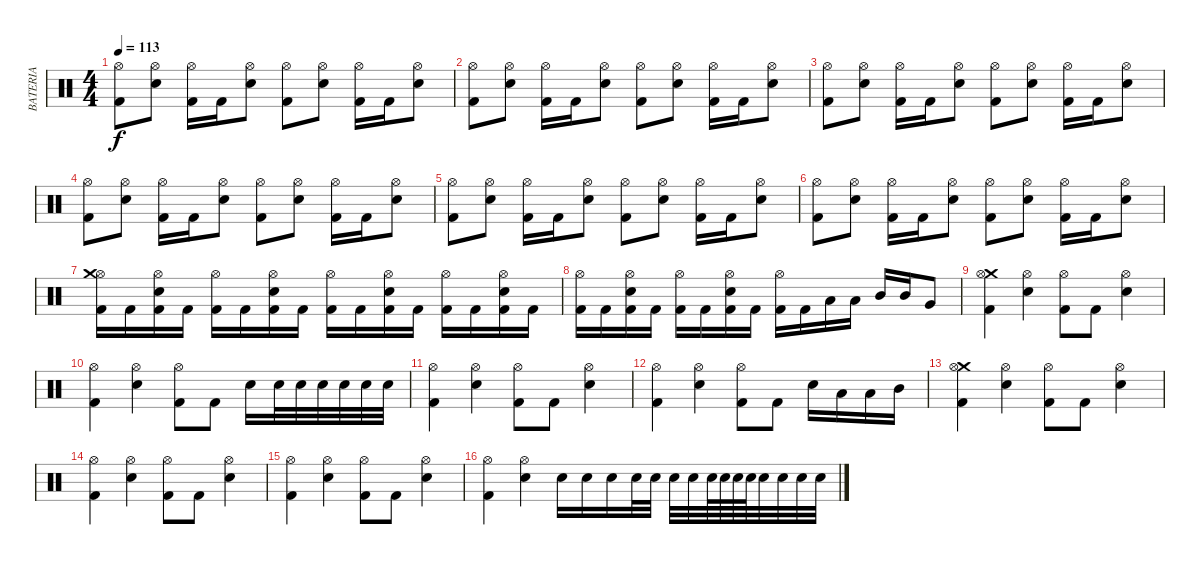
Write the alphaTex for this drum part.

\track ("BATERIA" "BATERIA") {instrument percussion}
\staff {score}
\articulation defaults
\ts (4 4)
\tempo 113
\clef neutral
\ks c
("Hi-Hat (open)" "Kick (hit) 2").8{dy f} ("Hi-Hat (open)" "Electric Snare (hit)").8 ("Hi-Hat (open)" "Kick (hit) 2").16 "Kick (hit) 2".16 ("Hi-Hat (open)" "Electric Snare (hit)").8 ("Hi-Hat (open)" "Kick (hit) 2").8 ("Hi-Hat (open)" "Electric Snare (hit)").8 ("Hi-Hat (open)" "Kick (hit) 2").16 "Kick (hit) 2".16 ("Hi-Hat (open)" "Electric Snare (hit)").8 |
("Hi-Hat (open)" "Kick (hit) 2").8 ("Hi-Hat (open)" "Electric Snare (hit)").8 ("Hi-Hat (open)" "Kick (hit) 2").16 "Kick (hit) 2".16 ("Hi-Hat (open)" "Electric Snare (hit)").8 ("Hi-Hat (open)" "Kick (hit) 2").8 ("Hi-Hat (open)" "Electric Snare (hit)").8 ("Hi-Hat (open)" "Kick (hit) 2").16 "Kick (hit) 2".16 ("Hi-Hat (open)" "Electric Snare (hit)").8 |
("Hi-Hat (open)" "Kick (hit) 2").8 ("Hi-Hat (open)" "Electric Snare (hit)").8 ("Hi-Hat (open)" "Kick (hit) 2").16 "Kick (hit) 2".16 ("Hi-Hat (open)" "Electric Snare (hit)").8 ("Hi-Hat (open)" "Kick (hit) 2").8 ("Hi-Hat (open)" "Electric Snare (hit)").8 ("Hi-Hat (open)" "Kick (hit) 2").16 "Kick (hit) 2".16 ("Hi-Hat (open)" "Electric Snare (hit)").8 |
("Hi-Hat (open)" "Kick (hit) 2").8 ("Hi-Hat (open)" "Electric Snare (hit)").8 ("Hi-Hat (open)" "Kick (hit) 2").16 "Kick (hit) 2".16 ("Hi-Hat (open)" "Electric Snare (hit)").8 ("Hi-Hat (open)" "Kick (hit) 2").8 ("Hi-Hat (open)" "Electric Snare (hit)").8 ("Hi-Hat (open)" "Kick (hit) 2").16 "Kick (hit) 2".16 ("Hi-Hat (open)" "Electric Snare (hit)").8 |
("Hi-Hat (open)" "Kick (hit) 2").8 ("Hi-Hat (open)" "Electric Snare (hit)").8 ("Hi-Hat (open)" "Kick (hit) 2").16 "Kick (hit) 2".16 ("Hi-Hat (open)" "Electric Snare (hit)").8 ("Hi-Hat (open)" "Kick (hit) 2").8 ("Hi-Hat (open)" "Electric Snare (hit)").8 ("Hi-Hat (open)" "Kick (hit) 2").16 "Kick (hit) 2".16 ("Hi-Hat (open)" "Electric Snare (hit)").8 |
("Hi-Hat (open)" "Kick (hit) 2").8 ("Hi-Hat (open)" "Electric Snare (hit)").8 ("Hi-Hat (open)" "Kick (hit) 2").16 "Kick (hit) 2".16 ("Hi-Hat (open)" "Electric Snare (hit)").8 ("Hi-Hat (open)" "Kick (hit) 2").8 ("Hi-Hat (open)" "Electric Snare (hit)").8 ("Hi-Hat (open)" "Kick (hit) 2").16 "Kick (hit) 2".16 ("Hi-Hat (open)" "Electric Snare (hit)").8 |
("Hi-Hat (open)" "Kick (hit) 2" "Crash medium (hit)").16 "Kick (hit) 2".16 ("Hi-Hat (open)" "Electric Snare (hit)" "Kick (hit) 2").16 "Kick (hit) 2".16 ("Hi-Hat (open)" "Kick (hit) 2").16 "Kick (hit) 2".16 ("Hi-Hat (open)" "Electric Snare (hit)" "Kick (hit) 2").16 "Kick (hit) 2".16 ("Hi-Hat (open)" "Kick (hit) 2").16 "Kick (hit) 2".16 ("Hi-Hat (open)" "Electric Snare (hit)" "Kick (hit) 2").16 "Kick (hit) 2".16 ("Hi-Hat (open)" "Kick (hit) 2").16 "Kick (hit) 2".16 ("Hi-Hat (open)" "Electric Snare (hit)" "Kick (hit) 2").16 "Kick (hit) 2".16 |
("Hi-Hat (open)" "Kick (hit) 2").16 "Kick (hit) 2".16 ("Hi-Hat (open)" "Electric Snare (hit)" "Kick (hit) 2").16 "Kick (hit) 2".16 ("Hi-Hat (open)" "Kick (hit) 2").16 "Kick (hit) 2".16 ("Hi-Hat (open)" "Electric Snare (hit)" "Kick (hit) 2").16 "Kick (hit) 2".16 ("Hi-Hat (open)" "Kick (hit) 2").16 "Kick (hit) 2".16 "Low Tom (hit)".16 "Low Tom (hit)".16 "Mid Tom (hit)".16 "Mid Tom (hit)".16 "Very Low Tom (hit)".8 |
("Crash medium (hit)" "Hi-Hat (open)" "Kick (hit) 2").4 ("Hi-Hat (open)" "Electric Snare (hit)").4 ("Hi-Hat (open)" "Kick (hit) 2").8 "Kick (hit) 2".8 ("Hi-Hat (open)" "Electric Snare (hit)").4 |
("Hi-Hat (open)" "Kick (hit) 2").4 ("Hi-Hat (open)" "Electric Snare (hit)").4 ("Hi-Hat (open)" "Kick (hit) 2").8 "Kick (hit) 2".8 "Electric Snare (hit)".16 "Electric Snare (hit)".32 "Electric Snare (hit)".32 "Electric Snare (hit)".32 "Electric Snare (hit)".32 "Electric Snare (hit)".32 "Electric Snare (hit)".32 |
("Hi-Hat (open)" "Kick (hit) 2").4 ("Hi-Hat (open)" "Electric Snare (hit)").4 ("Hi-Hat (open)" "Kick (hit) 2").8 "Kick (hit) 2".8 ("Hi-Hat (open)" "Electric Snare (hit)").4 |
("Hi-Hat (open)" "Kick (hit) 2").4 ("Hi-Hat (open)" "Electric Snare (hit)").4 ("Hi-Hat (open)" "Kick (hit) 2").8 "Kick (hit) 2".8 "Electric Snare (hit)".16 "Low Tom (hit)".16 "Low Tom (hit)".16 "Mid Tom (hit)".16 |
("Crash medium (hit)" "Hi-Hat (open)" "Kick (hit) 2").4 ("Hi-Hat (open)" "Electric Snare (hit)").4 ("Hi-Hat (open)" "Kick (hit) 2").8 "Kick (hit) 2".8 ("Hi-Hat (open)" "Electric Snare (hit)").4 |
("Hi-Hat (open)" "Kick (hit) 2").4 ("Hi-Hat (open)" "Electric Snare (hit)").4 ("Hi-Hat (open)" "Kick (hit) 2").8 "Kick (hit) 2".8 ("Hi-Hat (open)" "Electric Snare (hit)").4 |
("Hi-Hat (open)" "Kick (hit) 2").4 ("Hi-Hat (open)" "Electric Snare (hit)").4 ("Hi-Hat (open)" "Kick (hit) 2").8 "Kick (hit) 2".8 ("Hi-Hat (open)" "Electric Snare (hit)").4 |
("Hi-Hat (open)" "Kick (hit) 2").4 ("Hi-Hat (open)" "Electric Snare (hit)").4 "Electric Snare (hit)".16 "Electric Snare (hit)".16 "Electric Snare (hit)".16 "Electric Snare (hit)".32 "Electric Snare (hit)".32 "Electric Snare (hit)".32 "Electric Snare (hit)".32 "Electric Snare (hit)".64 "Electric Snare (hit)".64 "Electric Snare (hit)".64 "Electric Snare (hit)".64 "Electric Snare (hit)".32 "Electric Snare (hit)".32 "Electric Snare (hit)".32 "Electric Snare (hit)".32
